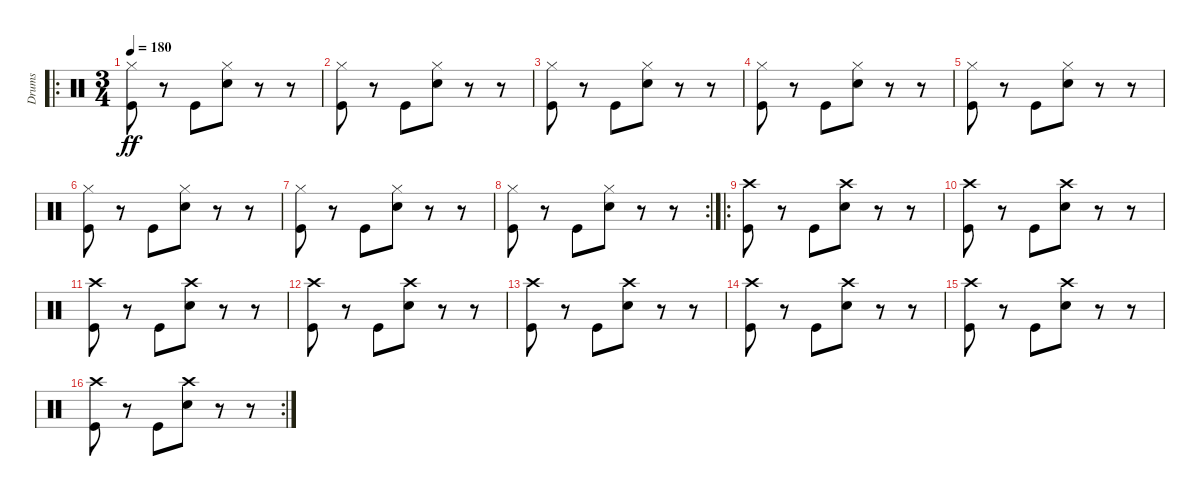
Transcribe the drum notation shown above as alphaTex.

\track ("Drums" "Drums") {instrument percussion}
\staff {score}
\articulation defaults
\ro
\ts (3 4)
\tempo 180
\clef neutral
\ks c
("Hi-Hat (closed)" "Kick (hit)").8{dy ff} r.8 "Kick (hit)".8 ("Hi-Hat (closed)" "Snare (hit) 2").8 r.8 r.8 |
("Hi-Hat (closed)" "Kick (hit)").8 r.8 "Kick (hit)".8 ("Hi-Hat (closed)" "Snare (hit) 2").8 r.8 r.8 |
("Hi-Hat (closed)" "Kick (hit)").8 r.8 "Kick (hit)".8 ("Hi-Hat (closed)" "Snare (hit) 2").8 r.8 r.8 |
("Hi-Hat (closed)" "Kick (hit)").8 r.8 "Kick (hit)".8 ("Hi-Hat (closed)" "Snare (hit) 2").8 r.8 r.8 |
("Hi-Hat (closed)" "Kick (hit)").8 r.8 "Kick (hit)".8 ("Hi-Hat (closed)" "Snare (hit) 2").8 r.8 r.8 |
("Hi-Hat (closed)" "Kick (hit)").8 r.8 "Kick (hit)".8 ("Hi-Hat (closed)" "Snare (hit) 2").8 r.8 r.8 |
("Hi-Hat (closed)" "Kick (hit)").8 r.8 "Kick (hit)".8 ("Hi-Hat (closed)" "Snare (hit) 2").8 r.8 r.8 |
\rc 2
("Hi-Hat (closed)" "Kick (hit)").8 r.8 "Kick (hit)".8 ("Hi-Hat (closed)" "Snare (hit) 2").8 r.8 r.8 |
\ro
("Crash high (hit)" "Kick (hit)").8 r.8 "Kick (hit)".8 ("Crash high (hit)" "Snare (hit) 2").8 r.8 r.8 |
("Crash high (hit)" "Kick (hit)").8 r.8 "Kick (hit)".8 ("Crash high (hit)" "Snare (hit) 2").8 r.8 r.8 |
("Crash high (hit)" "Kick (hit)").8 r.8 "Kick (hit)".8 ("Crash high (hit)" "Snare (hit) 2").8 r.8 r.8 |
("Crash high (hit)" "Kick (hit)").8 r.8 "Kick (hit)".8 ("Crash high (hit)" "Snare (hit) 2").8 r.8 r.8 |
("Crash high (hit)" "Kick (hit)").8 r.8 "Kick (hit)".8 ("Crash high (hit)" "Snare (hit) 2").8 r.8 r.8 |
("Crash high (hit)" "Kick (hit)").8 r.8 "Kick (hit)".8 ("Crash high (hit)" "Snare (hit) 2").8 r.8 r.8 |
("Crash high (hit)" "Kick (hit)").8 r.8 "Kick (hit)".8 ("Crash high (hit)" "Snare (hit) 2").8 r.8 r.8 |
\rc 2
("Crash high (hit)" "Kick (hit)").8 r.8 "Kick (hit)".8 ("Crash high (hit)" "Snare (hit) 2").8 r.8 r.8
